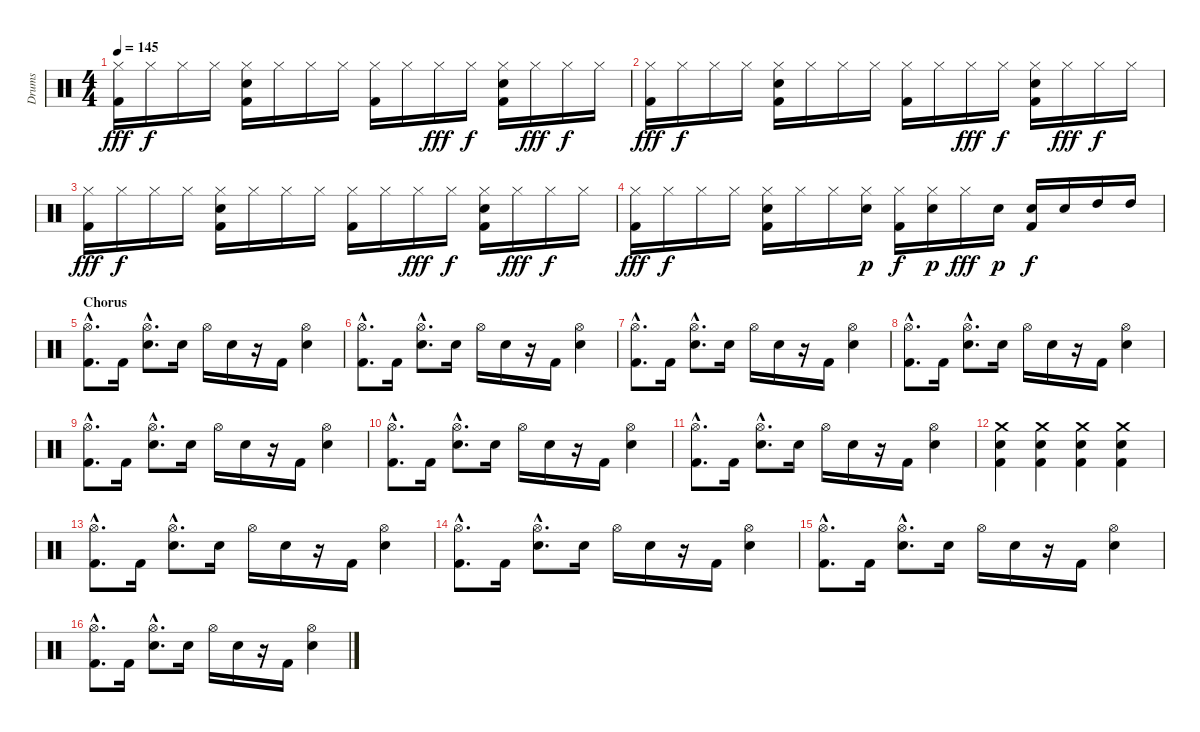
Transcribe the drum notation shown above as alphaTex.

\track ("Drums" "Drums") {instrument percussion}
\staff {score}
\articulation defaults
\ts (4 4)
\tempo 145
\clef neutral
\ks c
("Hi-Hat (closed)" "Kick (hit) 2").16{dy fff} "Hi-Hat (closed)".16{dy f} "Hi-Hat (closed)".16 "Hi-Hat (closed)".16 ("Hi-Hat (closed)" "Electric Snare (hit)" "Kick (hit) 2").16 "Hi-Hat (closed)".16 "Hi-Hat (closed)".16 "Hi-Hat (closed)".16 ("Hi-Hat (closed)" "Kick (hit) 2").16 "Hi-Hat (closed)".16 "Hi-Hat (closed)".16{dy fff} "Hi-Hat (closed)".16{dy f} ("Hi-Hat (closed)" "Electric Snare (hit)" "Kick (hit) 2").16 "Hi-Hat (closed)".16{dy fff} "Hi-Hat (closed)".16{dy f} "Hi-Hat (closed)".16 |
("Hi-Hat (closed)" "Kick (hit) 2").16{dy fff} "Hi-Hat (closed)".16{dy f} "Hi-Hat (closed)".16 "Hi-Hat (closed)".16 ("Hi-Hat (closed)" "Electric Snare (hit)" "Kick (hit) 2").16 "Hi-Hat (closed)".16 "Hi-Hat (closed)".16 "Hi-Hat (closed)".16 ("Hi-Hat (closed)" "Kick (hit) 2").16 "Hi-Hat (closed)".16 "Hi-Hat (closed)".16{dy fff} "Hi-Hat (closed)".16{dy f} ("Hi-Hat (closed)" "Electric Snare (hit)" "Kick (hit) 2").16 "Hi-Hat (closed)".16{dy fff} "Hi-Hat (closed)".16{dy f} "Hi-Hat (closed)".16 |
("Hi-Hat (closed)" "Kick (hit) 2").16{dy fff} "Hi-Hat (closed)".16{dy f} "Hi-Hat (closed)".16 "Hi-Hat (closed)".16 ("Hi-Hat (closed)" "Electric Snare (hit)" "Kick (hit) 2").16 "Hi-Hat (closed)".16 "Hi-Hat (closed)".16 "Hi-Hat (closed)".16 ("Hi-Hat (closed)" "Kick (hit) 2").16 "Hi-Hat (closed)".16 "Hi-Hat (closed)".16{dy fff} "Hi-Hat (closed)".16{dy f} ("Hi-Hat (closed)" "Electric Snare (hit)" "Kick (hit) 2").16 "Hi-Hat (closed)".16{dy fff} "Hi-Hat (closed)".16{dy f} "Hi-Hat (closed)".16 |
("Hi-Hat (closed)" "Kick (hit) 2").16{dy fff} "Hi-Hat (closed)".16{dy f} "Hi-Hat (closed)".16 "Hi-Hat (closed)".16 ("Hi-Hat (closed)" "Electric Snare (hit)" "Kick (hit) 2").16 "Hi-Hat (closed)".16 "Hi-Hat (closed)".16 ("Hi-Hat (closed)" "Electric Snare (hit)").16{dy p} ("Hi-Hat (closed)" "Kick (hit) 2").16{dy f} ("Hi-Hat (closed)" "Electric Snare (hit)").16{dy p} "Hi-Hat (closed)".16{dy fff} "Electric Snare (hit)".16{dy p} ("Electric Snare (hit)" "Kick (hit) 2").16{dy f} "Electric Snare (hit)".16 "High Tom (hit)".16 "High Tom (hit)".16 |
\section ("" "Chorus")
("Hi-Hat (open)"{hac} "Kick (hit) 2"{hac}).8{d} "Kick (hit) 2".16 ("Hi-Hat (open)"{hac} "Electric Snare (hit)"{hac}).8{d} "Electric Snare (hit)".16 "Hi-Hat (open)".16 "Electric Snare (hit)".16 r.16 "Kick (hit) 2".16 ("Hi-Hat (open)" "Electric Snare (hit)").4 |
("Hi-Hat (open)"{hac} "Kick (hit) 2"{hac}).8{d} "Kick (hit) 2".16 ("Hi-Hat (open)"{hac} "Electric Snare (hit)"{hac}).8{d} "Electric Snare (hit)".16 "Hi-Hat (open)".16 "Electric Snare (hit)".16 r.16 "Kick (hit) 2".16 ("Hi-Hat (open)" "Electric Snare (hit)").4 |
("Hi-Hat (open)"{hac} "Kick (hit) 2"{hac}).8{d} "Kick (hit) 2".16 ("Hi-Hat (open)"{hac} "Electric Snare (hit)"{hac}).8{d} "Electric Snare (hit)".16 "Hi-Hat (open)".16 "Electric Snare (hit)".16 r.16 "Kick (hit) 2".16 ("Hi-Hat (open)" "Electric Snare (hit)").4 |
("Hi-Hat (open)"{hac} "Kick (hit) 2"{hac}).8{d} "Kick (hit) 2".16 ("Hi-Hat (open)"{hac} "Electric Snare (hit)"{hac}).8{d} "Electric Snare (hit)".16 "Hi-Hat (open)".16 "Electric Snare (hit)".16 r.16 "Kick (hit) 2".16 ("Hi-Hat (open)" "Electric Snare (hit)").4 |
("Hi-Hat (open)"{hac} "Kick (hit) 2"{hac}).8{d} "Kick (hit) 2".16 ("Hi-Hat (open)"{hac} "Electric Snare (hit)"{hac}).8{d} "Electric Snare (hit)".16 "Hi-Hat (open)".16 "Electric Snare (hit)".16 r.16 "Kick (hit) 2".16 ("Hi-Hat (open)" "Electric Snare (hit)").4 |
("Hi-Hat (open)"{hac} "Kick (hit) 2"{hac}).8{d} "Kick (hit) 2".16 ("Hi-Hat (open)"{hac} "Electric Snare (hit)"{hac}).8{d} "Electric Snare (hit)".16 "Hi-Hat (open)".16 "Electric Snare (hit)".16 r.16 "Kick (hit) 2".16 ("Hi-Hat (open)" "Electric Snare (hit)").4 |
("Hi-Hat (open)"{hac} "Kick (hit) 2"{hac}).8{d} "Kick (hit) 2".16 ("Hi-Hat (open)"{hac} "Electric Snare (hit)"{hac}).8{d} "Electric Snare (hit)".16 "Hi-Hat (open)".16 "Electric Snare (hit)".16 r.16 "Kick (hit) 2".16 ("Hi-Hat (open)" "Electric Snare (hit)").4 |
("Crash medium (hit)" "Electric Snare (hit)" "Kick (hit) 2").4 ("Crash medium (hit)" "Electric Snare (hit)" "Kick (hit) 2").4 ("Crash medium (hit)" "Electric Snare (hit)" "Kick (hit) 2").4 ("Crash medium (hit)" "Electric Snare (hit)" "Kick (hit) 2").4 |
("Hi-Hat (open)"{hac} "Kick (hit) 2"{hac}).8{d} "Kick (hit) 2".16 ("Hi-Hat (open)"{hac} "Electric Snare (hit)"{hac}).8{d} "Electric Snare (hit)".16 "Hi-Hat (open)".16 "Electric Snare (hit)".16 r.16 "Kick (hit) 2".16 ("Hi-Hat (open)" "Electric Snare (hit)").4 |
("Hi-Hat (open)"{hac} "Kick (hit) 2"{hac}).8{d} "Kick (hit) 2".16 ("Hi-Hat (open)"{hac} "Electric Snare (hit)"{hac}).8{d} "Electric Snare (hit)".16 "Hi-Hat (open)".16 "Electric Snare (hit)".16 r.16 "Kick (hit) 2".16 ("Hi-Hat (open)" "Electric Snare (hit)").4 |
("Hi-Hat (open)"{hac} "Kick (hit) 2"{hac}).8{d} "Kick (hit) 2".16 ("Hi-Hat (open)"{hac} "Electric Snare (hit)"{hac}).8{d} "Electric Snare (hit)".16 "Hi-Hat (open)".16 "Electric Snare (hit)".16 r.16 "Kick (hit) 2".16 ("Hi-Hat (open)" "Electric Snare (hit)").4 |
("Hi-Hat (open)"{hac} "Kick (hit) 2"{hac}).8{d} "Kick (hit) 2".16 ("Hi-Hat (open)"{hac} "Electric Snare (hit)"{hac}).8{d} "Electric Snare (hit)".16 "Hi-Hat (open)".16 "Electric Snare (hit)".16 r.16 "Kick (hit) 2".16 ("Hi-Hat (open)" "Electric Snare (hit)").4
